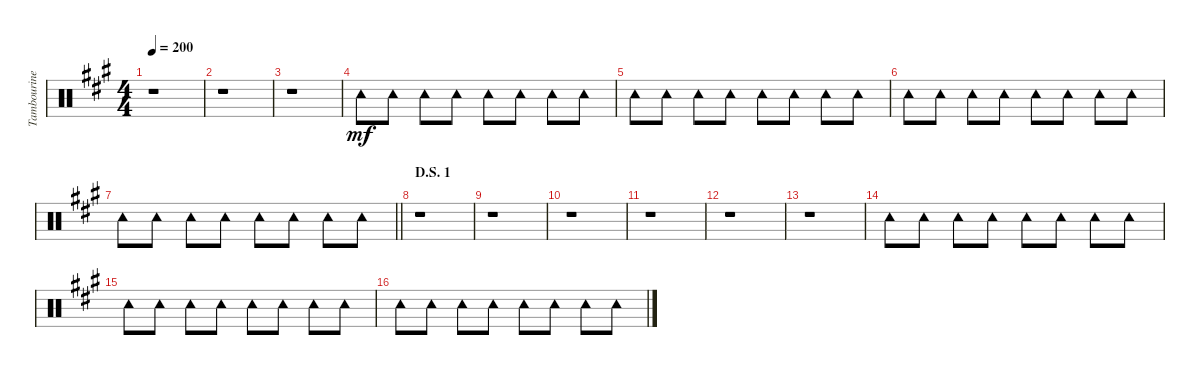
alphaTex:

\track ("Tambourine" "Tambourine") {instrument percussion}
\staff {score}
\articulation defaults
\ts (4 4)
\tempo 200
\clef neutral
\ks a
r.1{dy mf} |
r.1 |
r.1 |
"Tambourine (hit)".8 "Tambourine (hit)".8 "Tambourine (hit)".8 "Tambourine (hit)".8 "Tambourine (hit)".8 "Tambourine (hit)".8 "Tambourine (hit)".8 "Tambourine (hit)".8 |
"Tambourine (hit)".8 "Tambourine (hit)".8 "Tambourine (hit)".8 "Tambourine (hit)".8 "Tambourine (hit)".8 "Tambourine (hit)".8 "Tambourine (hit)".8 "Tambourine (hit)".8 |
"Tambourine (hit)".8 "Tambourine (hit)".8 "Tambourine (hit)".8 "Tambourine (hit)".8 "Tambourine (hit)".8 "Tambourine (hit)".8 "Tambourine (hit)".8 "Tambourine (hit)".8 |
\barLineRight lightlight "Tambourine (hit)".8 "Tambourine (hit)".8 "Tambourine (hit)".8 "Tambourine (hit)".8 "Tambourine (hit)".8 "Tambourine (hit)".8 "Tambourine (hit)".8 "Tambourine (hit)".8
|
\section ("" "D.S. 1")
r.1 |
r.1 |
r.1 |
r.1 |
r.1 |
r.1 |
"Tambourine (hit)".8 "Tambourine (hit)".8 "Tambourine (hit)".8 "Tambourine (hit)".8 "Tambourine (hit)".8 "Tambourine (hit)".8 "Tambourine (hit)".8 "Tambourine (hit)".8 |
"Tambourine (hit)".8 "Tambourine (hit)".8 "Tambourine (hit)".8 "Tambourine (hit)".8 "Tambourine (hit)".8 "Tambourine (hit)".8 "Tambourine (hit)".8 "Tambourine (hit)".8 |
"Tambourine (hit)".8 "Tambourine (hit)".8 "Tambourine (hit)".8 "Tambourine (hit)".8 "Tambourine (hit)".8 "Tambourine (hit)".8 "Tambourine (hit)".8 "Tambourine (hit)".8
